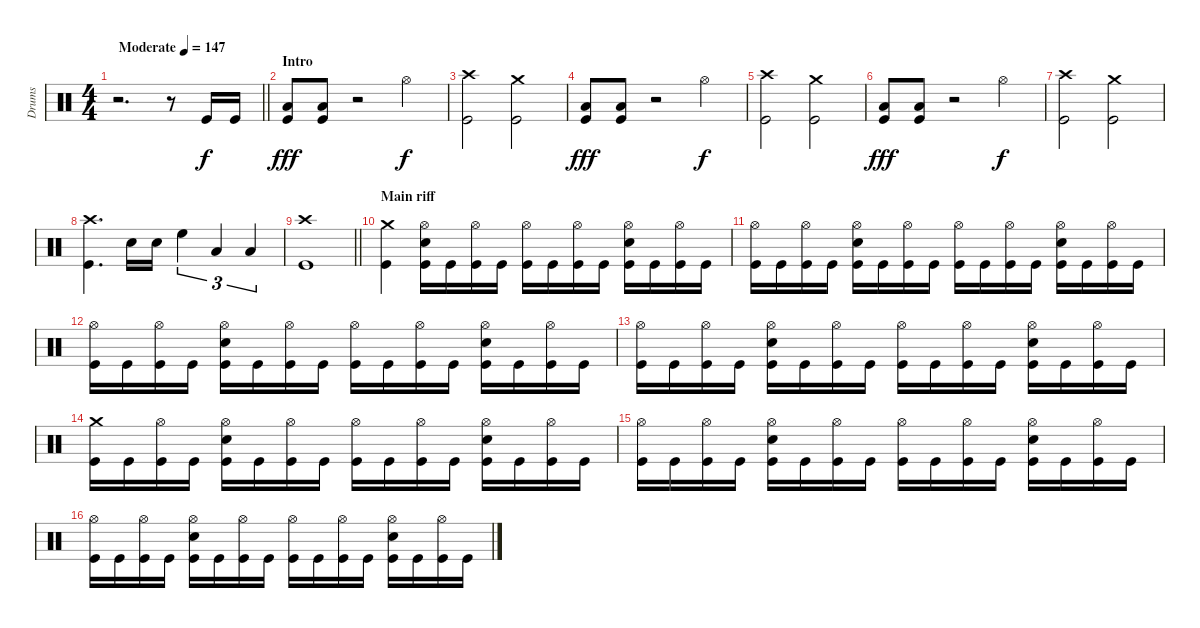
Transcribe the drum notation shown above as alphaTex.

\track ("Drums" "Drums") {instrument percussion}
\staff {score}
\articulation defaults
\ts (4 4)
\tempo (147 "Moderate")
\clef neutral
\barLineRight lightlight
\ks c
r.2{d dy f} r.8 "Kick (hit)".16 "Kick (hit)".16 |
\section ("" "Intro")
("Low Floor Tom (hit)" "Kick (hit)").8{dy fff} ("Low Floor Tom (hit)" "Kick (hit)").8 r.2 "Hi-Hat (open)".4{dy f} |
("Crash high (hit)" "Kick (hit)").2 ("Crash medium (hit)" "Kick (hit)").2 |
("Low Floor Tom (hit)" "Kick (hit)").8{dy fff} ("Low Floor Tom (hit)" "Kick (hit)").8 r.2 "Hi-Hat (open)".4{dy f} |
("Crash high (hit)" "Kick (hit)").2 ("Crash medium (hit)" "Kick (hit)").2 |
("Low Floor Tom (hit)" "Kick (hit)").8{dy fff} ("Low Floor Tom (hit)" "Kick (hit)").8 r.2 "Hi-Hat (open)".4{dy f} |
("Crash high (hit)" "Kick (hit)").2 ("Crash medium (hit)" "Kick (hit)").2 |
("Crash high (hit)" "Kick (hit)").4{d} "Electric Snare (hit)".16 "Electric Snare (hit)".16 "High Floor Tom (hit)".4{tu (3 2)} "Low Tom (hit)".4{tu (3 2)} "Low Floor Tom (hit)".4{tu (3 2)} |
\barLineRight lightlight
("Crash high (hit)" "Kick (hit)").1 |
\section ("" "Main riff")
("Crash medium (hit)" "Kick (hit)").4 ("Electric Snare (hit)" "Hi-Hat (open)" "Kick (hit)").16 "Kick (hit)".16 ("Hi-Hat (open)" "Kick (hit)").16 "Kick (hit)".16 ("Hi-Hat (open)" "Kick (hit)").16 "Kick (hit)".16 ("Hi-Hat (open)" "Kick (hit)").16 "Kick (hit)".16 ("Electric Snare (hit)" "Hi-Hat (open)" "Kick (hit)").16 "Kick (hit)".16 ("Hi-Hat (open)" "Kick (hit)").16 "Kick (hit)".16 |
("Hi-Hat (open)" "Kick (hit)").16 "Kick (hit)".16 ("Hi-Hat (open)" "Kick (hit)").16 "Kick (hit)".16 ("Electric Snare (hit)" "Hi-Hat (open)" "Kick (hit)").16 "Kick (hit)".16 ("Hi-Hat (open)" "Kick (hit)").16 "Kick (hit)".16 ("Hi-Hat (open)" "Kick (hit)").16 "Kick (hit)".16 ("Hi-Hat (open)" "Kick (hit)").16 "Kick (hit)".16 ("Electric Snare (hit)" "Hi-Hat (open)" "Kick (hit)").16 "Kick (hit)".16 ("Hi-Hat (open)" "Kick (hit)").16 "Kick (hit)".16 |
("Hi-Hat (open)" "Kick (hit)").16 "Kick (hit)".16 ("Hi-Hat (open)" "Kick (hit)").16 "Kick (hit)".16 ("Electric Snare (hit)" "Hi-Hat (open)" "Kick (hit)").16 "Kick (hit)".16 ("Hi-Hat (open)" "Kick (hit)").16 "Kick (hit)".16 ("Hi-Hat (open)" "Kick (hit)").16 "Kick (hit)".16 ("Hi-Hat (open)" "Kick (hit)").16 "Kick (hit)".16 ("Electric Snare (hit)" "Hi-Hat (open)" "Kick (hit)").16 "Kick (hit)".16 ("Hi-Hat (open)" "Kick (hit)").16 "Kick (hit)".16 |
("Hi-Hat (open)" "Kick (hit)").16 "Kick (hit)".16 ("Hi-Hat (open)" "Kick (hit)").16 "Kick (hit)".16 ("Electric Snare (hit)" "Hi-Hat (open)" "Kick (hit)").16 "Kick (hit)".16 ("Hi-Hat (open)" "Kick (hit)").16 "Kick (hit)".16 ("Hi-Hat (open)" "Kick (hit)").16 "Kick (hit)".16 ("Hi-Hat (open)" "Kick (hit)").16 "Kick (hit)".16 ("Electric Snare (hit)" "Hi-Hat (open)" "Kick (hit)").16 "Kick (hit)".16 ("Hi-Hat (open)" "Kick (hit)").16 "Kick (hit)".16 |
("Crash medium (hit)" "Kick (hit)").16 "Kick (hit)".16 ("Hi-Hat (open)" "Kick (hit)").16 "Kick (hit)".16 ("Electric Snare (hit)" "Hi-Hat (open)" "Kick (hit)").16 "Kick (hit)".16 ("Hi-Hat (open)" "Kick (hit)").16 "Kick (hit)".16 ("Hi-Hat (open)" "Kick (hit)").16 "Kick (hit)".16 ("Hi-Hat (open)" "Kick (hit)").16 "Kick (hit)".16 ("Electric Snare (hit)" "Hi-Hat (open)" "Kick (hit)").16 "Kick (hit)".16 ("Hi-Hat (open)" "Kick (hit)").16 "Kick (hit)".16 |
("Hi-Hat (open)" "Kick (hit)").16 "Kick (hit)".16 ("Hi-Hat (open)" "Kick (hit)").16 "Kick (hit)".16 ("Electric Snare (hit)" "Hi-Hat (open)" "Kick (hit)").16 "Kick (hit)".16 ("Hi-Hat (open)" "Kick (hit)").16 "Kick (hit)".16 ("Hi-Hat (open)" "Kick (hit)").16 "Kick (hit)".16 ("Hi-Hat (open)" "Kick (hit)").16 "Kick (hit)".16 ("Electric Snare (hit)" "Hi-Hat (open)" "Kick (hit)").16 "Kick (hit)".16 ("Hi-Hat (open)" "Kick (hit)").16 "Kick (hit)".16 |
("Hi-Hat (open)" "Kick (hit)").16 "Kick (hit)".16 ("Hi-Hat (open)" "Kick (hit)").16 "Kick (hit)".16 ("Electric Snare (hit)" "Hi-Hat (open)" "Kick (hit)").16 "Kick (hit)".16 ("Hi-Hat (open)" "Kick (hit)").16 "Kick (hit)".16 ("Hi-Hat (open)" "Kick (hit)").16 "Kick (hit)".16 ("Hi-Hat (open)" "Kick (hit)").16 "Kick (hit)".16 ("Electric Snare (hit)" "Hi-Hat (open)" "Kick (hit)").16 "Kick (hit)".16 ("Hi-Hat (open)" "Kick (hit)").16 "Kick (hit)".16
